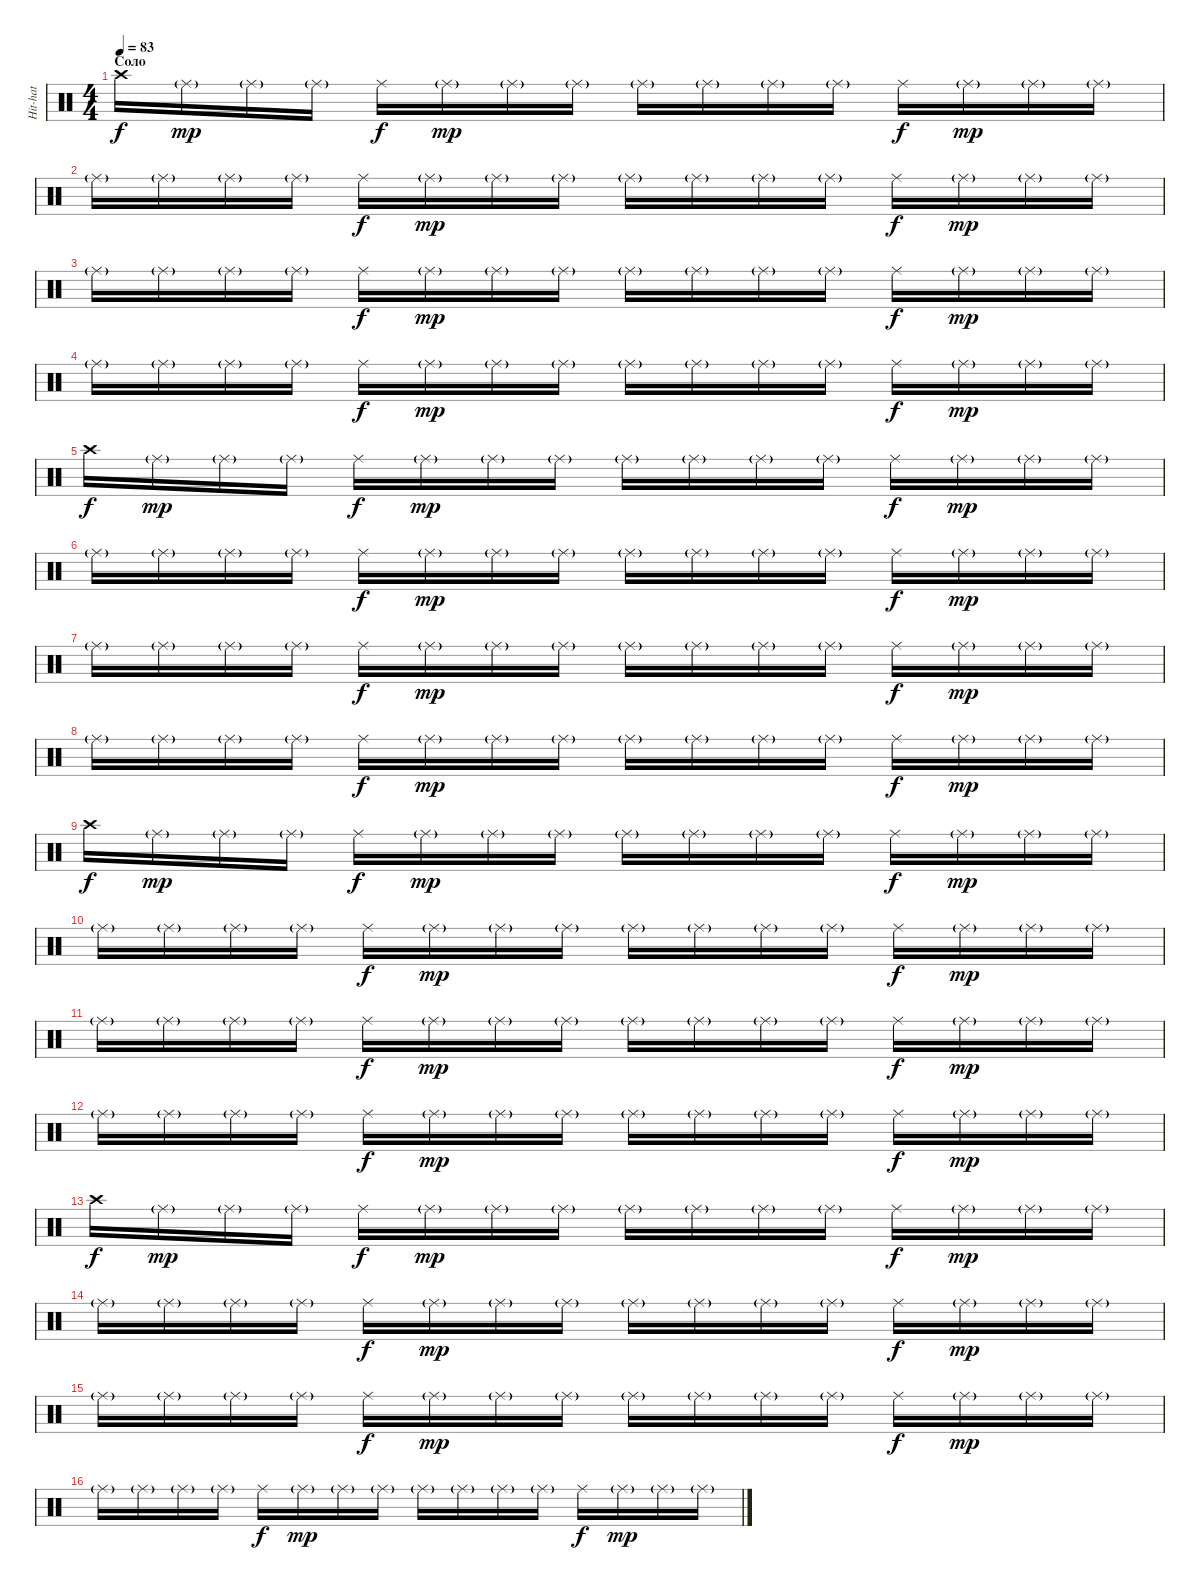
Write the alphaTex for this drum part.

\track ("Hit-hat" "Hit-hat") {instrument percussion}
\staff {score}
\articulation defaults
\ts (4 4)
\section ("" "Соло")
\tempo 83
\clef neutral
\ks c "Crash high (hit)".16{dy f} "Ride (middle)"{g}.16{dy mp} "Ride (middle)"{g}.16 "Ride (middle)"{g}.16 "Ride (middle)".16{dy f} "Ride (middle)"{g}.16{dy mp} "Ride (middle)"{g}.16 "Ride (middle)"{g}.16 "Ride (middle)"{g}.16 "Ride (middle)"{g}.16 "Ride (middle)"{g}.16 "Ride (middle)"{g}.16 "Ride (middle)".16{dy f} "Ride (middle)"{g}.16{dy mp} "Ride (middle)"{g}.16 "Ride (middle)"{g}.16
|
"Ride (middle)"{g}.16 "Ride (middle)"{g}.16 "Ride (middle)"{g}.16 "Ride (middle)"{g}.16 "Ride (middle)".16{dy f} "Ride (middle)"{g}.16{dy mp} "Ride (middle)"{g}.16 "Ride (middle)"{g}.16 "Ride (middle)"{g}.16 "Ride (middle)"{g}.16 "Ride (middle)"{g}.16 "Ride (middle)"{g}.16 "Ride (middle)".16{dy f} "Ride (middle)"{g}.16{dy mp} "Ride (middle)"{g}.16 "Ride (middle)"{g}.16 |
"Ride (middle)"{g}.16 "Ride (middle)"{g}.16 "Ride (middle)"{g}.16 "Ride (middle)"{g}.16 "Ride (middle)".16{dy f} "Ride (middle)"{g}.16{dy mp} "Ride (middle)"{g}.16 "Ride (middle)"{g}.16 "Ride (middle)"{g}.16 "Ride (middle)"{g}.16 "Ride (middle)"{g}.16 "Ride (middle)"{g}.16 "Ride (middle)".16{dy f} "Ride (middle)"{g}.16{dy mp} "Ride (middle)"{g}.16 "Ride (middle)"{g}.16 |
"Ride (middle)"{g}.16 "Ride (middle)"{g}.16 "Ride (middle)"{g}.16 "Ride (middle)"{g}.16 "Ride (middle)".16{dy f} "Ride (middle)"{g}.16{dy mp} "Ride (middle)"{g}.16 "Ride (middle)"{g}.16 "Ride (middle)"{g}.16 "Ride (middle)"{g}.16 "Ride (middle)"{g}.16 "Ride (middle)"{g}.16 "Ride (middle)".16{dy f} "Ride (middle)"{g}.16{dy mp} "Ride (middle)"{g}.16 "Ride (middle)"{g}.16 |
"Crash high (hit)".16{dy f} "Ride (middle)"{g}.16{dy mp} "Ride (middle)"{g}.16 "Ride (middle)"{g}.16 "Ride (middle)".16{dy f} "Ride (middle)"{g}.16{dy mp} "Ride (middle)"{g}.16 "Ride (middle)"{g}.16 "Ride (middle)"{g}.16 "Ride (middle)"{g}.16 "Ride (middle)"{g}.16 "Ride (middle)"{g}.16 "Ride (middle)".16{dy f} "Ride (middle)"{g}.16{dy mp} "Ride (middle)"{g}.16 "Ride (middle)"{g}.16 |
"Ride (middle)"{g}.16 "Ride (middle)"{g}.16 "Ride (middle)"{g}.16 "Ride (middle)"{g}.16 "Ride (middle)".16{dy f} "Ride (middle)"{g}.16{dy mp} "Ride (middle)"{g}.16 "Ride (middle)"{g}.16 "Ride (middle)"{g}.16 "Ride (middle)"{g}.16 "Ride (middle)"{g}.16 "Ride (middle)"{g}.16 "Ride (middle)".16{dy f} "Ride (middle)"{g}.16{dy mp} "Ride (middle)"{g}.16 "Ride (middle)"{g}.16 |
"Ride (middle)"{g}.16 "Ride (middle)"{g}.16 "Ride (middle)"{g}.16 "Ride (middle)"{g}.16 "Ride (middle)".16{dy f} "Ride (middle)"{g}.16{dy mp} "Ride (middle)"{g}.16 "Ride (middle)"{g}.16 "Ride (middle)"{g}.16 "Ride (middle)"{g}.16 "Ride (middle)"{g}.16 "Ride (middle)"{g}.16 "Ride (middle)".16{dy f} "Ride (middle)"{g}.16{dy mp} "Ride (middle)"{g}.16 "Ride (middle)"{g}.16 |
"Ride (middle)"{g}.16 "Ride (middle)"{g}.16 "Ride (middle)"{g}.16 "Ride (middle)"{g}.16 "Ride (middle)".16{dy f} "Ride (middle)"{g}.16{dy mp} "Ride (middle)"{g}.16 "Ride (middle)"{g}.16 "Ride (middle)"{g}.16 "Ride (middle)"{g}.16 "Ride (middle)"{g}.16 "Ride (middle)"{g}.16 "Ride (middle)".16{dy f} "Ride (middle)"{g}.16{dy mp} "Ride (middle)"{g}.16 "Ride (middle)"{g}.16 |
"Crash high (hit)".16{dy f} "Ride (middle)"{g}.16{dy mp} "Ride (middle)"{g}.16 "Ride (middle)"{g}.16 "Ride (middle)".16{dy f} "Ride (middle)"{g}.16{dy mp} "Ride (middle)"{g}.16 "Ride (middle)"{g}.16 "Ride (middle)"{g}.16 "Ride (middle)"{g}.16 "Ride (middle)"{g}.16 "Ride (middle)"{g}.16 "Ride (middle)".16{dy f} "Ride (middle)"{g}.16{dy mp} "Ride (middle)"{g}.16 "Ride (middle)"{g}.16 |
"Ride (middle)"{g}.16 "Ride (middle)"{g}.16 "Ride (middle)"{g}.16 "Ride (middle)"{g}.16 "Ride (middle)".16{dy f} "Ride (middle)"{g}.16{dy mp} "Ride (middle)"{g}.16 "Ride (middle)"{g}.16 "Ride (middle)"{g}.16 "Ride (middle)"{g}.16 "Ride (middle)"{g}.16 "Ride (middle)"{g}.16 "Ride (middle)".16{dy f} "Ride (middle)"{g}.16{dy mp} "Ride (middle)"{g}.16 "Ride (middle)"{g}.16 |
"Ride (middle)"{g}.16 "Ride (middle)"{g}.16 "Ride (middle)"{g}.16 "Ride (middle)"{g}.16 "Ride (middle)".16{dy f} "Ride (middle)"{g}.16{dy mp} "Ride (middle)"{g}.16 "Ride (middle)"{g}.16 "Ride (middle)"{g}.16 "Ride (middle)"{g}.16 "Ride (middle)"{g}.16 "Ride (middle)"{g}.16 "Ride (middle)".16{dy f} "Ride (middle)"{g}.16{dy mp} "Ride (middle)"{g}.16 "Ride (middle)"{g}.16 |
"Ride (middle)"{g}.16 "Ride (middle)"{g}.16 "Ride (middle)"{g}.16 "Ride (middle)"{g}.16 "Ride (middle)".16{dy f} "Ride (middle)"{g}.16{dy mp} "Ride (middle)"{g}.16 "Ride (middle)"{g}.16 "Ride (middle)"{g}.16 "Ride (middle)"{g}.16 "Ride (middle)"{g}.16 "Ride (middle)"{g}.16 "Ride (middle)".16{dy f} "Ride (middle)"{g}.16{dy mp} "Ride (middle)"{g}.16 "Ride (middle)"{g}.16 |
"Crash high (hit)".16{dy f} "Ride (middle)"{g}.16{dy mp} "Ride (middle)"{g}.16 "Ride (middle)"{g}.16 "Ride (middle)".16{dy f} "Ride (middle)"{g}.16{dy mp} "Ride (middle)"{g}.16 "Ride (middle)"{g}.16 "Ride (middle)"{g}.16 "Ride (middle)"{g}.16 "Ride (middle)"{g}.16 "Ride (middle)"{g}.16 "Ride (middle)".16{dy f} "Ride (middle)"{g}.16{dy mp} "Ride (middle)"{g}.16 "Ride (middle)"{g}.16 |
"Ride (middle)"{g}.16 "Ride (middle)"{g}.16 "Ride (middle)"{g}.16 "Ride (middle)"{g}.16 "Ride (middle)".16{dy f} "Ride (middle)"{g}.16{dy mp} "Ride (middle)"{g}.16 "Ride (middle)"{g}.16 "Ride (middle)"{g}.16 "Ride (middle)"{g}.16 "Ride (middle)"{g}.16 "Ride (middle)"{g}.16 "Ride (middle)".16{dy f} "Ride (middle)"{g}.16{dy mp} "Ride (middle)"{g}.16 "Ride (middle)"{g}.16 |
"Ride (middle)"{g}.16 "Ride (middle)"{g}.16 "Ride (middle)"{g}.16 "Ride (middle)"{g}.16 "Ride (middle)".16{dy f} "Ride (middle)"{g}.16{dy mp} "Ride (middle)"{g}.16 "Ride (middle)"{g}.16 "Ride (middle)"{g}.16 "Ride (middle)"{g}.16 "Ride (middle)"{g}.16 "Ride (middle)"{g}.16 "Ride (middle)".16{dy f} "Ride (middle)"{g}.16{dy mp} "Ride (middle)"{g}.16 "Ride (middle)"{g}.16 |
"Ride (middle)"{g}.16 "Ride (middle)"{g}.16 "Ride (middle)"{g}.16 "Ride (middle)"{g}.16 "Ride (middle)".16{dy f} "Ride (middle)"{g}.16{dy mp} "Ride (middle)"{g}.16 "Ride (middle)"{g}.16 "Ride (middle)"{g}.16 "Ride (middle)"{g}.16 "Ride (middle)"{g}.16 "Ride (middle)"{g}.16 "Ride (middle)".16{dy f} "Ride (middle)"{g}.16{dy mp} "Ride (middle)"{g}.16 "Ride (middle)"{g}.16
